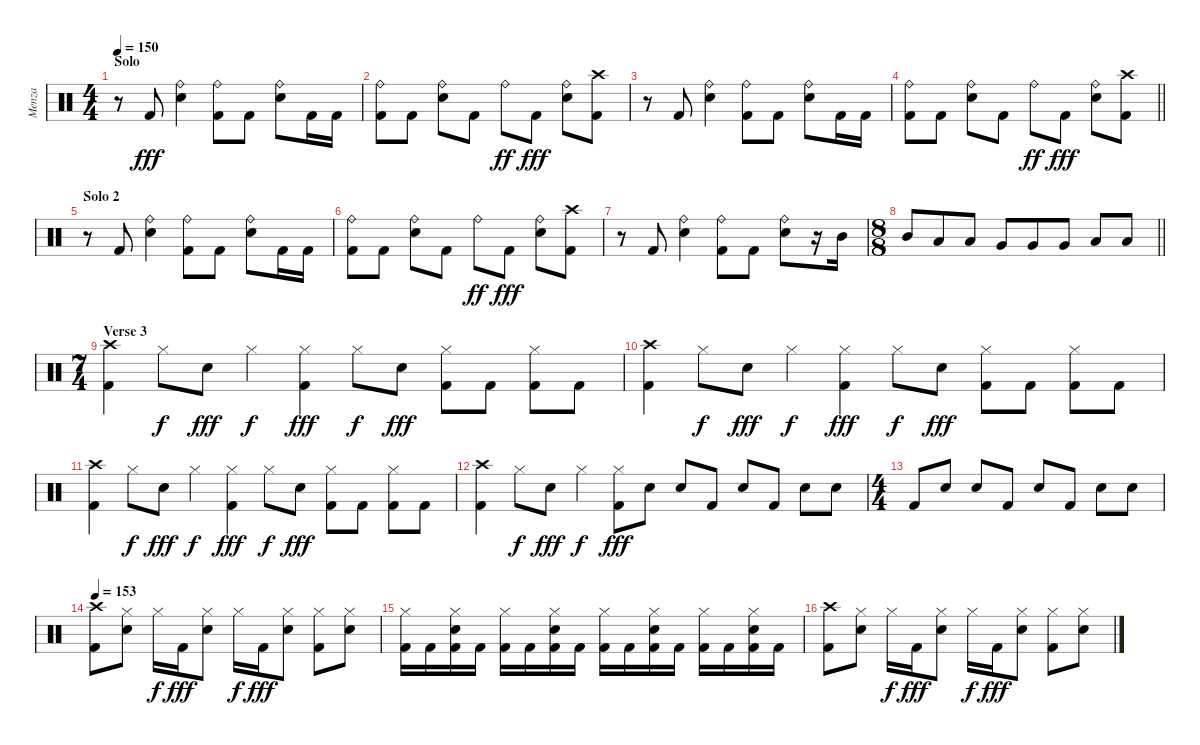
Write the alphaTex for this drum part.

\track ("Menza" "Menza") {instrument percussion}
\staff {score}
\articulation defaults
\ts (4 4)
\section ("" "Solo")
\tempo 150
\clef neutral
\ks c
r.8{dy fff} "Kick (hit) 2".8 ("Ride (bell)" "Snare (hit) 2").4 ("Ride (bell)" "Kick (hit) 2").8 "Kick (hit) 2".8 ("Ride (bell)" "Snare (hit) 2").8 "Kick (hit) 2".16 "Kick (hit) 2".16 |
("Ride (bell)" "Kick (hit) 2").8 "Kick (hit) 2".8 ("Ride (bell)" "Snare (hit) 2").8 "Kick (hit) 2".8 "Ride (bell)".8{dy ff} "Kick (hit) 2".8{dy fff} ("Ride (bell)" "Snare (hit) 2").8 ("Crash high (hit)" "Kick (hit) 2").8 |
r.8 "Kick (hit) 2".8 ("Ride (bell)" "Snare (hit) 2").4 ("Ride (bell)" "Kick (hit) 2").8 "Kick (hit) 2".8 ("Ride (bell)" "Snare (hit) 2").8 "Kick (hit) 2".16 "Kick (hit) 2".16 |
\barLineRight lightlight
("Ride (bell)" "Kick (hit) 2").8 "Kick (hit) 2".8 ("Ride (bell)" "Snare (hit) 2").8 "Kick (hit) 2".8 "Ride (bell)".8{dy ff} "Kick (hit) 2".8{dy fff} ("Ride (bell)" "Snare (hit) 2").8 ("Crash high (hit)" "Kick (hit) 2").8 |
\section ("" "Solo 2")
r.8 "Kick (hit) 2".8 ("Ride (bell)" "Snare (hit) 2").4 ("Ride (bell)" "Kick (hit) 2").8 "Kick (hit) 2".8 ("Ride (bell)" "Snare (hit) 2").8 "Kick (hit) 2".16 "Kick (hit) 2".16 |
("Ride (bell)" "Kick (hit) 2").8 "Kick (hit) 2".8 ("Ride (bell)" "Snare (hit) 2").8 "Kick (hit) 2".8 "Ride (bell)".8{dy ff} "Kick (hit) 2".8{dy fff} ("Ride (bell)" "Snare (hit) 2").8 ("Crash high (hit)" "Kick (hit) 2").8 |
r.8 "Kick (hit) 2".8 ("Ride (bell)" "Snare (hit) 2").4 ("Ride (bell)" "Kick (hit) 2").8 "Kick (hit) 2".8 ("Ride (bell)" "Snare (hit) 2").8 r.16 "Mid Tom (hit)".16 |
\ts (8 8)
\barLineRight lightlight "Mid Tom (hit)".8 "Low Tom (hit)".8 "Low Tom (hit)".8 "Very Low Tom (hit)".8 "Very Low Tom (hit)".8 "Very Low Tom (hit)".8 "Low Floor Tom (hit)".8 "Low Floor Tom (hit)".8
|
\ts (7 4)
\section ("" "Verse 3")
("Crash high (hit)" "Kick (hit) 2").4 "Hi-Hat (closed)".8{dy f} "Snare (hit) 2".8{dy fff} "Hi-Hat (closed)".4{dy f} ("Hi-Hat (closed)" "Kick (hit) 2").4{dy fff} "Hi-Hat (closed)".8{dy f} "Snare (hit) 2".8{dy fff} ("Hi-Hat (closed)" "Kick (hit) 2").8 "Kick (hit) 2".8 ("Hi-Hat (closed)" "Kick (hit) 2").8 "Kick (hit) 2".8 |
("Crash high (hit)" "Kick (hit) 2").4 "Hi-Hat (closed)".8{dy f} "Snare (hit) 2".8{dy fff} "Hi-Hat (closed)".4{dy f} ("Hi-Hat (closed)" "Kick (hit) 2").4{dy fff} "Hi-Hat (closed)".8{dy f} "Snare (hit) 2".8{dy fff} ("Hi-Hat (closed)" "Kick (hit) 2").8 "Kick (hit) 2".8 ("Hi-Hat (closed)" "Kick (hit) 2").8 "Kick (hit) 2".8 |
("Crash high (hit)" "Kick (hit) 2").4 "Hi-Hat (closed)".8{dy f} "Snare (hit) 2".8{dy fff} "Hi-Hat (closed)".4{dy f} ("Hi-Hat (closed)" "Kick (hit) 2").4{dy fff} "Hi-Hat (closed)".8{dy f} "Snare (hit) 2".8{dy fff} ("Hi-Hat (closed)" "Kick (hit) 2").8 "Kick (hit) 2".8 ("Hi-Hat (closed)" "Kick (hit) 2").8 "Kick (hit) 2".8 |
("Crash high (hit)" "Kick (hit) 2").4 "Hi-Hat (closed)".8{dy f} "Snare (hit) 2".8{dy fff} "Hi-Hat (closed)".4{dy f} ("Hi-Hat (closed)" "Kick (hit) 2").8{dy fff} "Snare (hit) 2".8 "Snare (hit) 2".8 "Kick (hit) 2".8 "Snare (hit) 2".8 "Kick (hit) 2".8 "Snare (hit) 2".8 "Snare (hit) 2".8 |
\ts (4 4)
"Kick (hit) 2".8 "Snare (hit) 2".8 "Snare (hit) 2".8 "Kick (hit) 2".8 "Snare (hit) 2".8 "Kick (hit) 2".8 "Snare (hit) 2".8 "Snare (hit) 2".8 |
\tempo 153
("Crash high (hit)" "Kick (hit) 2").8 ("Hi-Hat (closed)" "Snare (hit) 2").8 "Hi-Hat (closed)".16{dy f} "Kick (hit) 2".16{dy fff} ("Hi-Hat (closed)" "Snare (hit) 2").8 "Hi-Hat (closed)".16{dy f} "Kick (hit) 2".16{dy fff} ("Hi-Hat (closed)" "Snare (hit) 2").8 ("Hi-Hat (closed)" "Kick (hit) 2").8 ("Hi-Hat (closed)" "Snare (hit) 2").8 |
("Hi-Hat (closed)" "Kick (hit) 2").16 "Kick (hit) 2".16 ("Hi-Hat (closed)" "Snare (hit) 2" "Kick (hit) 2").16 "Kick (hit) 2".16 ("Hi-Hat (closed)" "Kick (hit) 2").16 "Kick (hit) 2".16 ("Hi-Hat (closed)" "Snare (hit) 2" "Kick (hit) 2").16 "Kick (hit) 2".16 ("Hi-Hat (closed)" "Kick (hit) 2").16 "Kick (hit) 2".16 ("Hi-Hat (closed)" "Snare (hit) 2" "Kick (hit) 2").16 "Kick (hit) 2".16 ("Hi-Hat (closed)" "Kick (hit) 2").16 "Kick (hit) 2".16 ("Hi-Hat (closed)" "Snare (hit) 2" "Kick (hit) 2").16 "Kick (hit) 2".16 |
("Crash high (hit)" "Kick (hit) 2").8 ("Hi-Hat (closed)" "Snare (hit) 2").8 "Hi-Hat (closed)".16{dy f} "Kick (hit) 2".16{dy fff} ("Hi-Hat (closed)" "Snare (hit) 2").8 "Hi-Hat (closed)".16{dy f} "Kick (hit) 2".16{dy fff} ("Hi-Hat (closed)" "Snare (hit) 2").8 ("Hi-Hat (closed)" "Kick (hit) 2").8 ("Hi-Hat (closed)" "Snare (hit) 2").8
